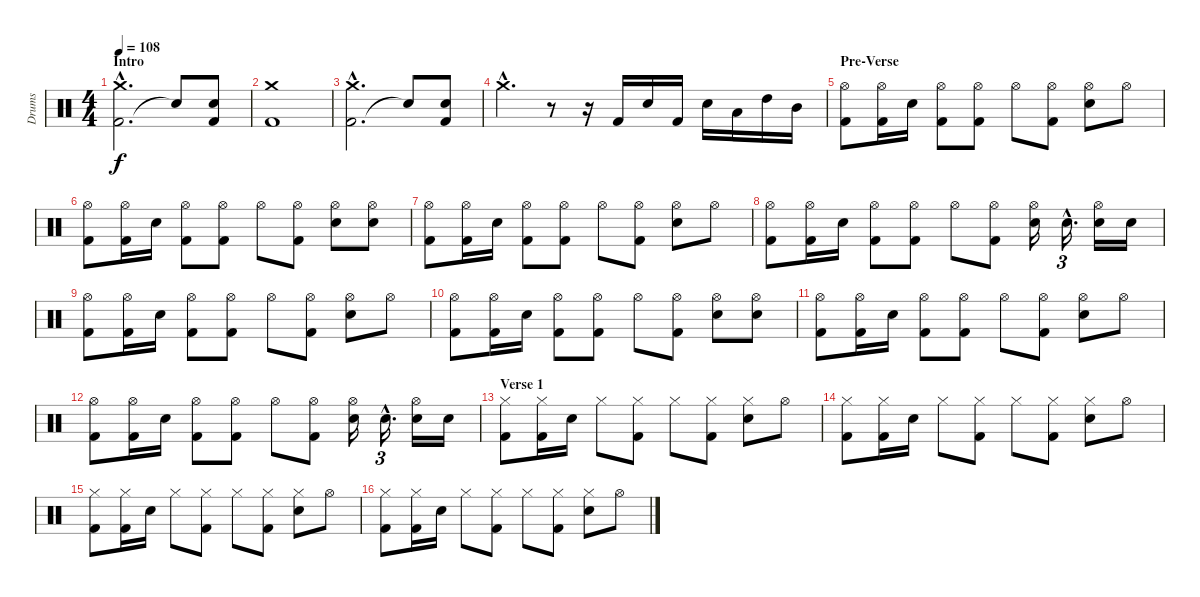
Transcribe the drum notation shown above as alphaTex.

\track ("Drums" "Drums") {instrument percussion}
\staff {score}
\articulation defaults
\ts (4 4)
\section ("" "Intro")
\tempo 108
\clef neutral
\ks c
("Kick (hit) 2"{hac} "Crash medium (hit)"{hac}).2{d dy f} "Snare (hit)"{t}.8 ("Kick (hit) 2" "Electric Snare (hit)").8 |
("Kick (hit) 2" "Crash medium (hit)").1 |
("Kick (hit) 2"{hac} "Crash medium (hit)"{hac}).2{d} "Snare (hit)"{t}.8 ("Kick (hit) 2" "Electric Snare (hit)").8 |
"Crash medium (hit)"{hac}.4{d} r.8 r.16 "Kick (hit) 2".16 "Electric Snare (hit)".16 "Kick (hit) 2".16 "Electric Snare (hit)".16 "Low Tom (hit)".16 "High Tom (hit)".16 "Mid Tom (hit)".16 |
\section ("" "Pre-Verse")
("Hi-Hat (open)" "Kick (hit) 2").8 ("Hi-Hat (open)" "Kick (hit) 2").16 "Electric Snare (hit)".16 ("Hi-Hat (open)" "Kick (hit) 2").8 ("Hi-Hat (open)" "Kick (hit) 2").8 "Hi-Hat (open)".8 ("Hi-Hat (open)" "Kick (hit) 2").8 ("Hi-Hat (open)" "Electric Snare (hit)").8 "Hi-Hat (open)".8 |
("Hi-Hat (open)" "Kick (hit) 2").8 ("Hi-Hat (open)" "Kick (hit) 2").16 "Electric Snare (hit)".16 ("Hi-Hat (open)" "Kick (hit) 2").8 ("Hi-Hat (open)" "Kick (hit) 2").8 "Hi-Hat (open)".8 ("Hi-Hat (open)" "Kick (hit) 2").8 ("Hi-Hat (open)" "Electric Snare (hit)").8 ("Hi-Hat (open)" "Electric Snare (hit)").8 |
("Hi-Hat (open)" "Kick (hit) 2").8 ("Hi-Hat (open)" "Kick (hit) 2").16 "Electric Snare (hit)".16 ("Hi-Hat (open)" "Kick (hit) 2").8 ("Hi-Hat (open)" "Kick (hit) 2").8 "Hi-Hat (open)".8 ("Hi-Hat (open)" "Kick (hit) 2").8 ("Hi-Hat (open)" "Electric Snare (hit)").8 "Hi-Hat (open)".8 |
("Hi-Hat (open)" "Kick (hit) 2").8 ("Hi-Hat (open)" "Kick (hit) 2").16 "Electric Snare (hit)".16 ("Hi-Hat (open)" "Kick (hit) 2").8 ("Hi-Hat (open)" "Kick (hit) 2").8 "Hi-Hat (open)".8 ("Hi-Hat (open)" "Kick (hit) 2").8 ("Hi-Hat (open)" "Electric Snare (hit)").16 "Electric Snare (hit)"{hac}.16{d tu (3 2)} ("Hi-Hat (open)" "Electric Snare (hit)").16 "Electric Snare (hit)".16 |
("Hi-Hat (open)" "Kick (hit) 2").8 ("Hi-Hat (open)" "Kick (hit) 2").16 "Electric Snare (hit)".16 ("Hi-Hat (open)" "Kick (hit) 2").8 ("Hi-Hat (open)" "Kick (hit) 2").8 "Hi-Hat (open)".8 ("Hi-Hat (open)" "Kick (hit) 2").8 ("Hi-Hat (open)" "Electric Snare (hit)").8 "Hi-Hat (open)".8 |
("Hi-Hat (open)" "Kick (hit) 2").8 ("Hi-Hat (open)" "Kick (hit) 2").16 "Electric Snare (hit)".16 ("Hi-Hat (open)" "Kick (hit) 2").8 ("Hi-Hat (open)" "Kick (hit) 2").8 "Hi-Hat (open)".8 ("Hi-Hat (open)" "Kick (hit) 2").8 ("Hi-Hat (open)" "Electric Snare (hit)").8 ("Hi-Hat (open)" "Electric Snare (hit)").8 |
("Hi-Hat (open)" "Kick (hit) 2").8 ("Hi-Hat (open)" "Kick (hit) 2").16 "Electric Snare (hit)".16 ("Hi-Hat (open)" "Kick (hit) 2").8 ("Hi-Hat (open)" "Kick (hit) 2").8 "Hi-Hat (open)".8 ("Hi-Hat (open)" "Kick (hit) 2").8 ("Hi-Hat (open)" "Electric Snare (hit)").8 "Hi-Hat (open)".8 |
("Hi-Hat (open)" "Kick (hit) 2").8 ("Hi-Hat (open)" "Kick (hit) 2").16 "Electric Snare (hit)".16 ("Hi-Hat (open)" "Kick (hit) 2").8 ("Hi-Hat (open)" "Kick (hit) 2").8 "Hi-Hat (open)".8 ("Hi-Hat (open)" "Kick (hit) 2").8 ("Hi-Hat (open)" "Electric Snare (hit)").16 "Electric Snare (hit)"{hac}.16{d tu (3 2)} ("Hi-Hat (open)" "Electric Snare (hit)").16 "Electric Snare (hit)".16 |
\section ("" "Verse 1")
("Hi-Hat (closed)" "Kick (hit) 2").8 ("Hi-Hat (closed)" "Kick (hit) 2").16 "Electric Snare (hit)".16 "Hi-Hat (closed)".8 ("Hi-Hat (closed)" "Kick (hit) 2").8 "Hi-Hat (closed)".8 ("Hi-Hat (closed)" "Kick (hit) 2").8 ("Hi-Hat (closed)" "Electric Snare (hit)").8 "Hi-Hat (open)".8 |
("Hi-Hat (closed)" "Kick (hit) 2").8 ("Hi-Hat (closed)" "Kick (hit) 2").16 "Electric Snare (hit)".16 "Hi-Hat (closed)".8 ("Hi-Hat (closed)" "Kick (hit) 2").8 "Hi-Hat (closed)".8 ("Hi-Hat (closed)" "Kick (hit) 2").8 ("Hi-Hat (closed)" "Electric Snare (hit)").8 "Hi-Hat (open)".8 |
("Hi-Hat (closed)" "Kick (hit) 2").8 ("Hi-Hat (closed)" "Kick (hit) 2").16 "Electric Snare (hit)".16 "Hi-Hat (closed)".8 ("Hi-Hat (closed)" "Kick (hit) 2").8 "Hi-Hat (closed)".8 ("Hi-Hat (closed)" "Kick (hit) 2").8 ("Hi-Hat (closed)" "Electric Snare (hit)").8 "Hi-Hat (open)".8 |
("Hi-Hat (closed)" "Kick (hit) 2").8 ("Hi-Hat (closed)" "Kick (hit) 2").16 "Electric Snare (hit)".16 "Hi-Hat (closed)".8 ("Hi-Hat (closed)" "Kick (hit) 2").8 "Hi-Hat (closed)".8 ("Hi-Hat (closed)" "Kick (hit) 2").8 ("Hi-Hat (closed)" "Electric Snare (hit)").8 "Hi-Hat (open)".8
